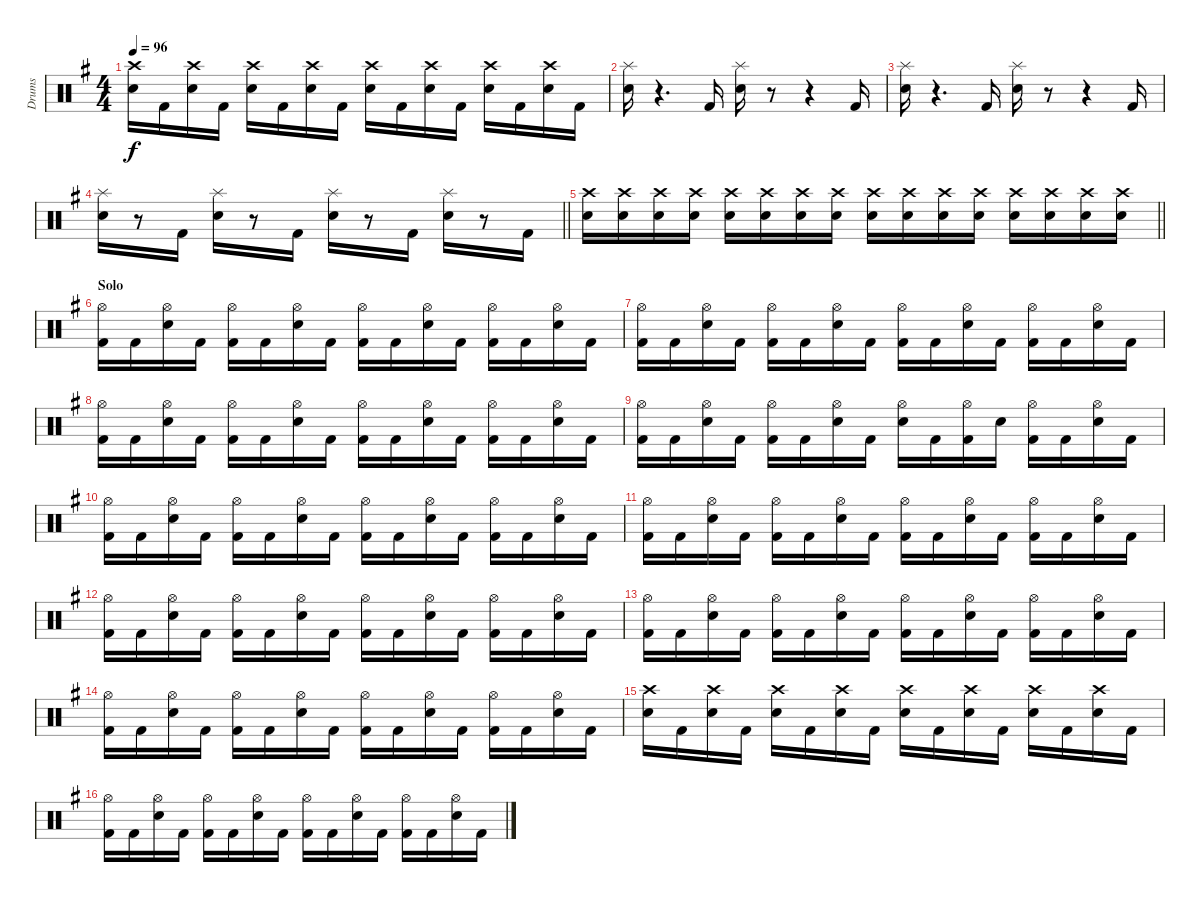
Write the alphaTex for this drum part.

\track ("Drums" "Drums") {instrument percussion}
\staff {score}
\articulation defaults
\ts (4 4)
\tempo 96
\clef neutral
\ks g
("Crash high (hit)" "Electric Snare (hit)").16{dy f} "Kick (hit) 2".16 ("Crash high (hit)" "Electric Snare (hit)").16 "Kick (hit) 2".16 ("Crash high (hit)" "Electric Snare (hit)").16 "Kick (hit) 2".16 ("Crash high (hit)" "Electric Snare (hit)").16 "Kick (hit) 2".16 ("Crash high (hit)" "Electric Snare (hit)").16 "Kick (hit) 2".16 ("Crash high (hit)" "Electric Snare (hit)").16 "Kick (hit) 2".16 ("Crash high (hit)" "Electric Snare (hit)").16 "Kick (hit) 2".16 ("Crash high (hit)" "Electric Snare (hit)").16 "Kick (hit) 2".16 |
("Splash (hit)" "Electric Snare (hit)").16 r.4{d} "Kick (hit) 2".16 ("Splash (hit)" "Electric Snare (hit)").16 r.8 r.4 "Kick (hit) 2".16 |
("Splash (hit)" "Electric Snare (hit)").16 r.4{d} "Kick (hit) 2".16 ("Splash (hit)" "Electric Snare (hit)").16 r.8 r.4 "Kick (hit) 2".16 |
\barLineRight lightlight
("Splash (hit)" "Electric Snare (hit)").16 r.8 "Kick (hit) 2".16 ("Splash (hit)" "Electric Snare (hit)").16 r.8 "Kick (hit) 2".16 ("Splash (hit)" "Electric Snare (hit)").16 r.8 "Kick (hit) 2".16 ("Splash (hit)" "Electric Snare (hit)").16 r.8 "Kick (hit) 2".16 |
\barLineRight lightlight
("Crash high (hit)" "Electric Snare (hit)").16 ("Crash high (hit)" "Electric Snare (hit)").16 ("Crash high (hit)" "Electric Snare (hit)").16 ("Crash high (hit)" "Electric Snare (hit)").16 ("Crash high (hit)" "Electric Snare (hit)").16 ("Crash high (hit)" "Electric Snare (hit)").16 ("Crash high (hit)" "Electric Snare (hit)").16 ("Crash high (hit)" "Electric Snare (hit)").16 ("Crash high (hit)" "Electric Snare (hit)").16 ("Crash high (hit)" "Electric Snare (hit)").16 ("Crash high (hit)" "Electric Snare (hit)").16 ("Crash high (hit)" "Electric Snare (hit)").16 ("Crash high (hit)" "Electric Snare (hit)").16 ("Crash high (hit)" "Electric Snare (hit)").16 ("Crash high (hit)" "Electric Snare (hit)").16 ("Crash high (hit)" "Electric Snare (hit)").16 |
\section ("" "Solo")
("Hi-Hat (open)" "Kick (hit) 2").16 "Kick (hit) 2".16 ("Hi-Hat (open)" "Electric Snare (hit)").16 "Kick (hit) 2".16 ("Hi-Hat (open)" "Kick (hit) 2").16 "Kick (hit) 2".16 ("Hi-Hat (open)" "Electric Snare (hit)").16 "Kick (hit) 2".16 ("Hi-Hat (open)" "Kick (hit) 2").16 "Kick (hit) 2".16 ("Hi-Hat (open)" "Electric Snare (hit)").16 "Kick (hit) 2".16 ("Hi-Hat (open)" "Kick (hit) 2").16 "Kick (hit) 2".16 ("Hi-Hat (open)" "Electric Snare (hit)").16 "Kick (hit) 2".16 |
("Hi-Hat (open)" "Kick (hit) 2").16 "Kick (hit) 2".16 ("Hi-Hat (open)" "Electric Snare (hit)").16 "Kick (hit) 2".16 ("Hi-Hat (open)" "Kick (hit) 2").16 "Kick (hit) 2".16 ("Hi-Hat (open)" "Electric Snare (hit)").16 "Kick (hit) 2".16 ("Hi-Hat (open)" "Kick (hit) 2").16 "Kick (hit) 2".16 ("Hi-Hat (open)" "Electric Snare (hit)").16 "Kick (hit) 2".16 ("Hi-Hat (open)" "Kick (hit) 2").16 "Kick (hit) 2".16 ("Hi-Hat (open)" "Electric Snare (hit)").16 "Kick (hit) 2".16 |
("Hi-Hat (open)" "Kick (hit) 2").16 "Kick (hit) 2".16 ("Hi-Hat (open)" "Electric Snare (hit)").16 "Kick (hit) 2".16 ("Hi-Hat (open)" "Kick (hit) 2").16 "Kick (hit) 2".16 ("Hi-Hat (open)" "Electric Snare (hit)").16 "Kick (hit) 2".16 ("Hi-Hat (open)" "Kick (hit) 2").16 "Kick (hit) 2".16 ("Hi-Hat (open)" "Electric Snare (hit)").16 "Kick (hit) 2".16 ("Hi-Hat (open)" "Kick (hit) 2").16 "Kick (hit) 2".16 ("Hi-Hat (open)" "Electric Snare (hit)").16 "Kick (hit) 2".16 |
("Hi-Hat (open)" "Kick (hit) 2").16 "Kick (hit) 2".16 ("Hi-Hat (open)" "Electric Snare (hit)").16 "Kick (hit) 2".16 ("Hi-Hat (open)" "Kick (hit) 2").16 "Kick (hit) 2".16 ("Hi-Hat (open)" "Electric Snare (hit)").16 "Kick (hit) 2".16 ("Hi-Hat (open)" "Electric Snare (hit)").16 "Kick (hit) 2".16 ("Hi-Hat (open)" "Kick (hit) 2").16 "Electric Snare (hit)".16 ("Hi-Hat (open)" "Kick (hit) 2").16 "Kick (hit) 2".16 ("Hi-Hat (open)" "Electric Snare (hit)").16 "Kick (hit) 2".16 |
("Hi-Hat (open)" "Kick (hit) 2").16 "Kick (hit) 2".16 ("Hi-Hat (open)" "Electric Snare (hit)").16 "Kick (hit) 2".16 ("Hi-Hat (open)" "Kick (hit) 2").16 "Kick (hit) 2".16 ("Hi-Hat (open)" "Electric Snare (hit)").16 "Kick (hit) 2".16 ("Hi-Hat (open)" "Kick (hit) 2").16 "Kick (hit) 2".16 ("Hi-Hat (open)" "Electric Snare (hit)").16 "Kick (hit) 2".16 ("Hi-Hat (open)" "Kick (hit) 2").16 "Kick (hit) 2".16 ("Hi-Hat (open)" "Electric Snare (hit)").16 "Kick (hit) 2".16 |
("Hi-Hat (open)" "Kick (hit) 2").16 "Kick (hit) 2".16 ("Hi-Hat (open)" "Electric Snare (hit)").16 "Kick (hit) 2".16 ("Hi-Hat (open)" "Kick (hit) 2").16 "Kick (hit) 2".16 ("Hi-Hat (open)" "Electric Snare (hit)").16 "Kick (hit) 2".16 ("Hi-Hat (open)" "Kick (hit) 2").16 "Kick (hit) 2".16 ("Hi-Hat (open)" "Electric Snare (hit)").16 "Kick (hit) 2".16 ("Hi-Hat (open)" "Kick (hit) 2").16 "Kick (hit) 2".16 ("Hi-Hat (open)" "Electric Snare (hit)").16 "Kick (hit) 2".16 |
("Hi-Hat (open)" "Kick (hit) 2").16 "Kick (hit) 2".16 ("Hi-Hat (open)" "Electric Snare (hit)").16 "Kick (hit) 2".16 ("Hi-Hat (open)" "Kick (hit) 2").16 "Kick (hit) 2".16 ("Hi-Hat (open)" "Electric Snare (hit)").16 "Kick (hit) 2".16 ("Hi-Hat (open)" "Kick (hit) 2").16 "Kick (hit) 2".16 ("Hi-Hat (open)" "Electric Snare (hit)").16 "Kick (hit) 2".16 ("Hi-Hat (open)" "Kick (hit) 2").16 "Kick (hit) 2".16 ("Hi-Hat (open)" "Electric Snare (hit)").16 "Kick (hit) 2".16 |
("Hi-Hat (open)" "Kick (hit) 2").16 "Kick (hit) 2".16 ("Hi-Hat (open)" "Electric Snare (hit)").16 "Kick (hit) 2".16 ("Hi-Hat (open)" "Kick (hit) 2").16 "Kick (hit) 2".16 ("Hi-Hat (open)" "Electric Snare (hit)").16 "Kick (hit) 2".16 ("Hi-Hat (open)" "Kick (hit) 2").16 "Kick (hit) 2".16 ("Hi-Hat (open)" "Electric Snare (hit)").16 "Kick (hit) 2".16 ("Hi-Hat (open)" "Kick (hit) 2").16 "Kick (hit) 2".16 ("Hi-Hat (open)" "Electric Snare (hit)").16 "Kick (hit) 2".16 |
("Hi-Hat (open)" "Kick (hit) 2").16 "Kick (hit) 2".16 ("Hi-Hat (open)" "Electric Snare (hit)").16 "Kick (hit) 2".16 ("Hi-Hat (open)" "Kick (hit) 2").16 "Kick (hit) 2".16 ("Hi-Hat (open)" "Electric Snare (hit)").16 "Kick (hit) 2".16 ("Hi-Hat (open)" "Kick (hit) 2").16 "Kick (hit) 2".16 ("Hi-Hat (open)" "Electric Snare (hit)").16 "Kick (hit) 2".16 ("Hi-Hat (open)" "Kick (hit) 2").16 "Kick (hit) 2".16 ("Hi-Hat (open)" "Electric Snare (hit)").16 "Kick (hit) 2".16 |
("Crash high (hit)" "Electric Snare (hit)").16 "Kick (hit) 2".16 ("Crash high (hit)" "Electric Snare (hit)").16 "Kick (hit) 2".16 ("Crash high (hit)" "Electric Snare (hit)").16 "Kick (hit) 2".16 ("Crash high (hit)" "Electric Snare (hit)").16 "Kick (hit) 2".16 ("Crash high (hit)" "Electric Snare (hit)").16 "Kick (hit) 2".16 ("Crash high (hit)" "Electric Snare (hit)").16 "Kick (hit) 2".16 ("Crash high (hit)" "Electric Snare (hit)").16 "Kick (hit) 2".16 ("Crash high (hit)" "Electric Snare (hit)").16 "Kick (hit) 2".16 |
("Hi-Hat (open)" "Kick (hit) 2").16 "Kick (hit) 2".16 ("Hi-Hat (open)" "Electric Snare (hit)").16 "Kick (hit) 2".16 ("Hi-Hat (open)" "Kick (hit) 2").16 "Kick (hit) 2".16 ("Hi-Hat (open)" "Electric Snare (hit)").16 "Kick (hit) 2".16 ("Hi-Hat (open)" "Kick (hit) 2").16 "Kick (hit) 2".16 ("Hi-Hat (open)" "Electric Snare (hit)").16 "Kick (hit) 2".16 ("Hi-Hat (open)" "Kick (hit) 2").16 "Kick (hit) 2".16 ("Hi-Hat (open)" "Electric Snare (hit)").16 "Kick (hit) 2".16
